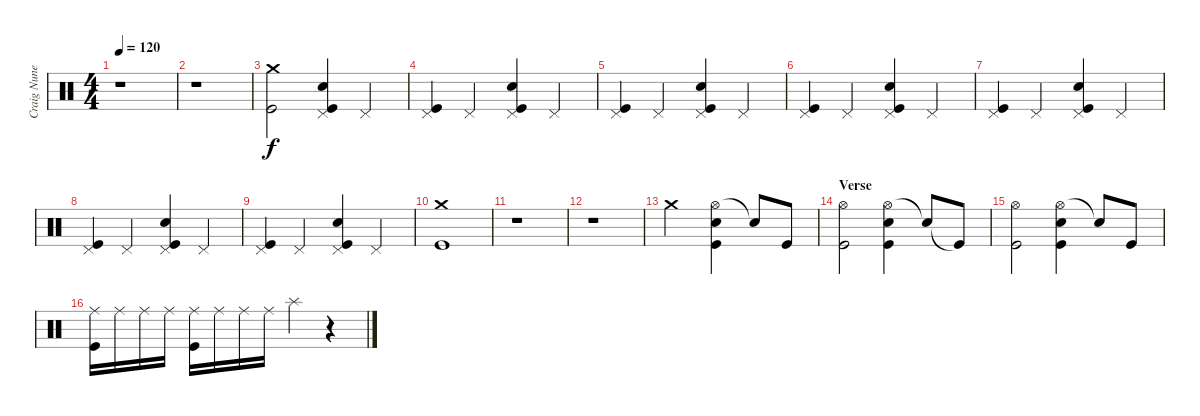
\track ("Craig Nunenmacher" "Craig Nune") {instrument percussion}
\staff {score}
\articulation defaults
\ts (4 4)
\tempo 120
\clef neutral
\ks c
r.1{dy f} |
r.1 |
("Crash medium (hit)" "Kick (hit)").2 ("Pedal Hi-Hat (hit)" "Snare (hit) 2" "Kick (hit)").4 "Pedal Hi-Hat (hit)".4 |
("Pedal Hi-Hat (hit)" "Kick (hit)").4 "Pedal Hi-Hat (hit)".4 ("Pedal Hi-Hat (hit)" "Snare (hit) 2" "Kick (hit)").4 "Pedal Hi-Hat (hit)".4 |
("Pedal Hi-Hat (hit)" "Kick (hit)").4 "Pedal Hi-Hat (hit)".4 ("Pedal Hi-Hat (hit)" "Snare (hit) 2" "Kick (hit)").4 "Pedal Hi-Hat (hit)".4 |
("Pedal Hi-Hat (hit)" "Kick (hit)").4 "Pedal Hi-Hat (hit)".4 ("Pedal Hi-Hat (hit)" "Snare (hit) 2" "Kick (hit)").4 "Pedal Hi-Hat (hit)".4 |
("Pedal Hi-Hat (hit)" "Kick (hit)").4 "Pedal Hi-Hat (hit)".4 ("Pedal Hi-Hat (hit)" "Snare (hit) 2" "Kick (hit)").4 "Pedal Hi-Hat (hit)".4 |
("Pedal Hi-Hat (hit)" "Kick (hit)").4 "Pedal Hi-Hat (hit)".4 ("Pedal Hi-Hat (hit)" "Snare (hit) 2" "Kick (hit)").4 "Pedal Hi-Hat (hit)".4 |
("Pedal Hi-Hat (hit)" "Kick (hit)").4 "Pedal Hi-Hat (hit)".4 ("Pedal Hi-Hat (hit)" "Snare (hit) 2" "Kick (hit)").4 "Pedal Hi-Hat (hit)".4 |
("Crash medium (hit)" "Kick (hit)").1 |
r.1 |
r.1 |
"Crash medium (hit)".2 ("Hi-Hat (open)" "Snare (hit) 2" "Kick (hit)").4 "Snare (hit)"{t}.8 "Kick (hit)".8 |
\section ("" "Verse")
("Hi-Hat (open)" "Kick (hit)").2 ("Hi-Hat (open)" "Snare (hit) 2" "Kick (hit)").4 "Snare (hit)"{t}.8 "Kick (hit)"{t}.8 |
("Hi-Hat (open)" "Kick (hit)").2 ("Hi-Hat (open)" "Snare (hit) 2" "Kick (hit)").4 "Snare (hit)"{t}.8 "Kick (hit)".8 |
("Ride (middle)" "Kick (hit)").16 "Ride (middle)".16 "Ride (middle)".16 "Ride (middle)".16 ("Ride (middle)" "Kick (hit)").16 "Ride (middle)".16 "Ride (middle)".16 "Ride (middle)".16 "Splash (hit)".4 r.4
